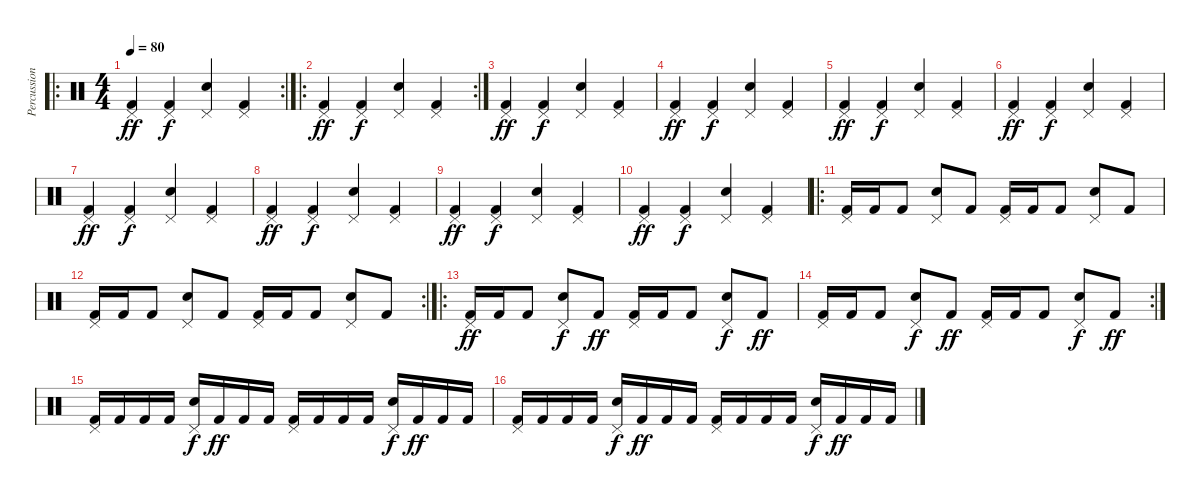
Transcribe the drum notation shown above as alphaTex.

\track ("Percussions" "Percussion") {instrument percussion}
\staff {score}
\articulation defaults
\ro
\rc 2
\ts (4 4)
\tempo 80
\clef neutral
\ks c
("Pedal Hi-Hat (hit)" "Kick (hit) 2").4{dy ff} ("Pedal Hi-Hat (hit)" "Kick (hit) 2").4{dy f} ("Pedal Hi-Hat (hit)" "Snare (hit) 2").4 ("Pedal Hi-Hat (hit)" "Kick (hit) 2").4 |
\ro
\rc 2
("Pedal Hi-Hat (hit)" "Kick (hit) 2").4{dy ff} ("Pedal Hi-Hat (hit)" "Kick (hit) 2").4{dy f} ("Pedal Hi-Hat (hit)" "Snare (hit) 2").4 ("Pedal Hi-Hat (hit)" "Kick (hit) 2").4 |
("Pedal Hi-Hat (hit)" "Kick (hit) 2").4{dy ff} ("Pedal Hi-Hat (hit)" "Kick (hit) 2").4{dy f} ("Pedal Hi-Hat (hit)" "Snare (hit) 2").4 ("Pedal Hi-Hat (hit)" "Kick (hit) 2").4 |
("Pedal Hi-Hat (hit)" "Kick (hit) 2").4{dy ff} ("Pedal Hi-Hat (hit)" "Kick (hit) 2").4{dy f} ("Pedal Hi-Hat (hit)" "Snare (hit) 2").4 ("Pedal Hi-Hat (hit)" "Kick (hit) 2").4 |
("Pedal Hi-Hat (hit)" "Kick (hit) 2").4{dy ff} ("Pedal Hi-Hat (hit)" "Kick (hit) 2").4{dy f} ("Pedal Hi-Hat (hit)" "Snare (hit) 2").4 ("Pedal Hi-Hat (hit)" "Kick (hit) 2").4 |
("Pedal Hi-Hat (hit)" "Kick (hit) 2").4{dy ff} ("Pedal Hi-Hat (hit)" "Kick (hit) 2").4{dy f} ("Pedal Hi-Hat (hit)" "Snare (hit) 2").4 ("Pedal Hi-Hat (hit)" "Kick (hit) 2").4 |
("Pedal Hi-Hat (hit)" "Kick (hit) 2").4{dy ff} ("Pedal Hi-Hat (hit)" "Kick (hit) 2").4{dy f} ("Pedal Hi-Hat (hit)" "Snare (hit) 2").4 ("Pedal Hi-Hat (hit)" "Kick (hit) 2").4 |
("Pedal Hi-Hat (hit)" "Kick (hit) 2").4{dy ff} ("Pedal Hi-Hat (hit)" "Kick (hit) 2").4{dy f} ("Pedal Hi-Hat (hit)" "Snare (hit) 2").4 ("Pedal Hi-Hat (hit)" "Kick (hit) 2").4 |
("Pedal Hi-Hat (hit)" "Kick (hit) 2").4{dy ff} ("Pedal Hi-Hat (hit)" "Kick (hit) 2").4{dy f} ("Pedal Hi-Hat (hit)" "Snare (hit) 2").4 ("Pedal Hi-Hat (hit)" "Kick (hit) 2").4 |
("Pedal Hi-Hat (hit)" "Kick (hit) 2").4{dy ff} ("Pedal Hi-Hat (hit)" "Kick (hit) 2").4{dy f} ("Pedal Hi-Hat (hit)" "Snare (hit) 2").4 ("Pedal Hi-Hat (hit)" "Kick (hit) 2").4 |
\ro
("Pedal Hi-Hat (hit)" "Kick (hit) 2").16 "Kick (hit) 2".16 "Kick (hit) 2".8 ("Pedal Hi-Hat (hit)" "Snare (hit) 2").8 "Kick (hit) 2".8 ("Pedal Hi-Hat (hit)" "Kick (hit) 2").16 "Kick (hit) 2".16 "Kick (hit) 2".8 ("Pedal Hi-Hat (hit)" "Snare (hit) 2").8 "Kick (hit) 2".8 |
\rc 2
("Pedal Hi-Hat (hit)" "Kick (hit) 2").16 "Kick (hit) 2".16 "Kick (hit) 2".8 ("Pedal Hi-Hat (hit)" "Snare (hit) 2").8 "Kick (hit) 2".8 ("Pedal Hi-Hat (hit)" "Kick (hit) 2").16 "Kick (hit) 2".16 "Kick (hit) 2".8 ("Pedal Hi-Hat (hit)" "Snare (hit) 2").8 "Kick (hit) 2".8 |
\ro
("Pedal Hi-Hat (hit)" "Kick (hit) 2").16{dy ff} "Kick (hit) 2".16 "Kick (hit) 2".8 ("Pedal Hi-Hat (hit)" "Snare (hit) 2").8{dy f} "Kick (hit) 2".8{dy ff} ("Pedal Hi-Hat (hit)" "Kick (hit) 2").16 "Kick (hit) 2".16 "Kick (hit) 2".8 ("Pedal Hi-Hat (hit)" "Snare (hit) 2").8{dy f} "Kick (hit) 2".8{dy ff} |
\rc 2
("Pedal Hi-Hat (hit)" "Kick (hit) 2").16 "Kick (hit) 2".16 "Kick (hit) 2".8 ("Pedal Hi-Hat (hit)" "Snare (hit) 2").8{dy f} "Kick (hit) 2".8{dy ff} ("Pedal Hi-Hat (hit)" "Kick (hit) 2").16 "Kick (hit) 2".16 "Kick (hit) 2".8 ("Pedal Hi-Hat (hit)" "Snare (hit) 2").8{dy f} "Kick (hit) 2".8{dy ff} |
("Pedal Hi-Hat (hit)" "Kick (hit) 2").16 "Kick (hit) 2".16 "Kick (hit) 2".16 "Kick (hit) 2".16 ("Pedal Hi-Hat (hit)" "Snare (hit) 2").16{dy f} "Kick (hit) 2".16{dy ff} "Kick (hit) 2".16 "Kick (hit) 2".16 ("Pedal Hi-Hat (hit)" "Kick (hit) 2").16 "Kick (hit) 2".16 "Kick (hit) 2".16 "Kick (hit) 2".16 ("Pedal Hi-Hat (hit)" "Snare (hit) 2").16{dy f} "Kick (hit) 2".16{dy ff} "Kick (hit) 2".16 "Kick (hit) 2".16 |
("Pedal Hi-Hat (hit)" "Kick (hit) 2").16 "Kick (hit) 2".16 "Kick (hit) 2".16 "Kick (hit) 2".16 ("Pedal Hi-Hat (hit)" "Snare (hit) 2").16{dy f} "Kick (hit) 2".16{dy ff} "Kick (hit) 2".16 "Kick (hit) 2".16 ("Pedal Hi-Hat (hit)" "Kick (hit) 2").16 "Kick (hit) 2".16 "Kick (hit) 2".16 "Kick (hit) 2".16 ("Pedal Hi-Hat (hit)" "Snare (hit) 2").16{dy f} "Kick (hit) 2".16{dy ff} "Kick (hit) 2".16 "Kick (hit) 2".16
